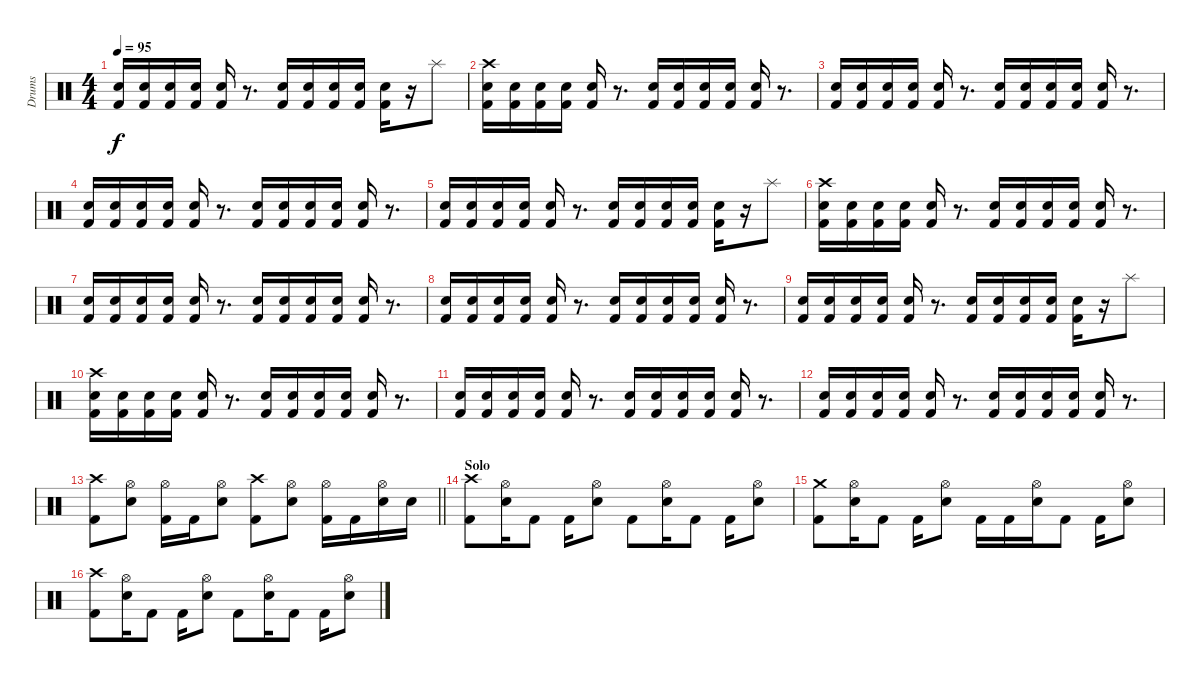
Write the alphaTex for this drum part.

\track ("Drums" "Drums") {instrument percussion}
\staff {score}
\articulation defaults
\ts (4 4)
\tempo 95
\clef neutral
\ks c
("Snare (hit) 2" "Kick (hit) 2").16{dy f} ("Snare (hit) 2" "Kick (hit) 2").16 ("Snare (hit) 2" "Kick (hit) 2").16 ("Snare (hit) 2" "Kick (hit) 2").16 ("Snare (hit) 2" "Kick (hit) 2").16 r.8{d} ("Snare (hit) 2" "Kick (hit) 2").16 ("Snare (hit) 2" "Kick (hit) 2").16 ("Snare (hit) 2" "Kick (hit) 2").16 ("Snare (hit) 2" "Kick (hit) 2").16 ("Snare (hit) 2" "Kick (hit) 2").16 r.16 "Splash (hit)".8 |
("Crash high (hit)" "Snare (hit) 2" "Kick (hit) 2").16 ("Snare (hit) 2" "Kick (hit) 2").16 ("Snare (hit) 2" "Kick (hit) 2").16 ("Snare (hit) 2" "Kick (hit) 2").16 ("Snare (hit) 2" "Kick (hit) 2").16 r.8{d} ("Snare (hit) 2" "Kick (hit) 2").16 ("Snare (hit) 2" "Kick (hit) 2").16 ("Snare (hit) 2" "Kick (hit) 2").16 ("Snare (hit) 2" "Kick (hit) 2").16 ("Snare (hit) 2" "Kick (hit) 2").16 r.8{d} |
("Snare (hit) 2" "Kick (hit) 2").16 ("Snare (hit) 2" "Kick (hit) 2").16 ("Snare (hit) 2" "Kick (hit) 2").16 ("Snare (hit) 2" "Kick (hit) 2").16 ("Snare (hit) 2" "Kick (hit) 2").16 r.8{d} ("Snare (hit) 2" "Kick (hit) 2").16 ("Snare (hit) 2" "Kick (hit) 2").16 ("Snare (hit) 2" "Kick (hit) 2").16 ("Snare (hit) 2" "Kick (hit) 2").16 ("Snare (hit) 2" "Kick (hit) 2").16 r.8{d} |
("Snare (hit) 2" "Kick (hit) 2").16 ("Snare (hit) 2" "Kick (hit) 2").16 ("Snare (hit) 2" "Kick (hit) 2").16 ("Snare (hit) 2" "Kick (hit) 2").16 ("Snare (hit) 2" "Kick (hit) 2").16 r.8{d} ("Snare (hit) 2" "Kick (hit) 2").16 ("Snare (hit) 2" "Kick (hit) 2").16 ("Snare (hit) 2" "Kick (hit) 2").16 ("Snare (hit) 2" "Kick (hit) 2").16 ("Snare (hit) 2" "Kick (hit) 2").16 r.8{d} |
("Snare (hit) 2" "Kick (hit) 2").16 ("Snare (hit) 2" "Kick (hit) 2").16 ("Snare (hit) 2" "Kick (hit) 2").16 ("Snare (hit) 2" "Kick (hit) 2").16 ("Snare (hit) 2" "Kick (hit) 2").16 r.8{d} ("Snare (hit) 2" "Kick (hit) 2").16 ("Snare (hit) 2" "Kick (hit) 2").16 ("Snare (hit) 2" "Kick (hit) 2").16 ("Snare (hit) 2" "Kick (hit) 2").16 ("Snare (hit) 2" "Kick (hit) 2").16 r.16 "Splash (hit)".8 |
("Crash high (hit)" "Snare (hit) 2" "Kick (hit) 2").16 ("Snare (hit) 2" "Kick (hit) 2").16 ("Snare (hit) 2" "Kick (hit) 2").16 ("Snare (hit) 2" "Kick (hit) 2").16 ("Snare (hit) 2" "Kick (hit) 2").16 r.8{d} ("Snare (hit) 2" "Kick (hit) 2").16 ("Snare (hit) 2" "Kick (hit) 2").16 ("Snare (hit) 2" "Kick (hit) 2").16 ("Snare (hit) 2" "Kick (hit) 2").16 ("Snare (hit) 2" "Kick (hit) 2").16 r.8{d} |
("Snare (hit) 2" "Kick (hit) 2").16 ("Snare (hit) 2" "Kick (hit) 2").16 ("Snare (hit) 2" "Kick (hit) 2").16 ("Snare (hit) 2" "Kick (hit) 2").16 ("Snare (hit) 2" "Kick (hit) 2").16 r.8{d} ("Snare (hit) 2" "Kick (hit) 2").16 ("Snare (hit) 2" "Kick (hit) 2").16 ("Snare (hit) 2" "Kick (hit) 2").16 ("Snare (hit) 2" "Kick (hit) 2").16 ("Snare (hit) 2" "Kick (hit) 2").16 r.8{d} |
("Snare (hit) 2" "Kick (hit) 2").16 ("Snare (hit) 2" "Kick (hit) 2").16 ("Snare (hit) 2" "Kick (hit) 2").16 ("Snare (hit) 2" "Kick (hit) 2").16 ("Snare (hit) 2" "Kick (hit) 2").16 r.8{d} ("Snare (hit) 2" "Kick (hit) 2").16 ("Snare (hit) 2" "Kick (hit) 2").16 ("Snare (hit) 2" "Kick (hit) 2").16 ("Snare (hit) 2" "Kick (hit) 2").16 ("Snare (hit) 2" "Kick (hit) 2").16 r.8{d} |
("Snare (hit) 2" "Kick (hit) 2").16 ("Snare (hit) 2" "Kick (hit) 2").16 ("Snare (hit) 2" "Kick (hit) 2").16 ("Snare (hit) 2" "Kick (hit) 2").16 ("Snare (hit) 2" "Kick (hit) 2").16 r.8{d} ("Snare (hit) 2" "Kick (hit) 2").16 ("Snare (hit) 2" "Kick (hit) 2").16 ("Snare (hit) 2" "Kick (hit) 2").16 ("Snare (hit) 2" "Kick (hit) 2").16 ("Snare (hit) 2" "Kick (hit) 2").16 r.16 "Splash (hit)".8 |
("Crash high (hit)" "Snare (hit) 2" "Kick (hit) 2").16 ("Snare (hit) 2" "Kick (hit) 2").16 ("Snare (hit) 2" "Kick (hit) 2").16 ("Snare (hit) 2" "Kick (hit) 2").16 ("Snare (hit) 2" "Kick (hit) 2").16 r.8{d} ("Snare (hit) 2" "Kick (hit) 2").16 ("Snare (hit) 2" "Kick (hit) 2").16 ("Snare (hit) 2" "Kick (hit) 2").16 ("Snare (hit) 2" "Kick (hit) 2").16 ("Snare (hit) 2" "Kick (hit) 2").16 r.8{d} |
("Snare (hit) 2" "Kick (hit) 2").16 ("Snare (hit) 2" "Kick (hit) 2").16 ("Snare (hit) 2" "Kick (hit) 2").16 ("Snare (hit) 2" "Kick (hit) 2").16 ("Snare (hit) 2" "Kick (hit) 2").16 r.8{d} ("Snare (hit) 2" "Kick (hit) 2").16 ("Snare (hit) 2" "Kick (hit) 2").16 ("Snare (hit) 2" "Kick (hit) 2").16 ("Snare (hit) 2" "Kick (hit) 2").16 ("Snare (hit) 2" "Kick (hit) 2").16 r.8{d} |
("Snare (hit) 2" "Kick (hit) 2").16 ("Snare (hit) 2" "Kick (hit) 2").16 ("Snare (hit) 2" "Kick (hit) 2").16 ("Snare (hit) 2" "Kick (hit) 2").16 ("Snare (hit) 2" "Kick (hit) 2").16 r.8{d} ("Snare (hit) 2" "Kick (hit) 2").16 ("Snare (hit) 2" "Kick (hit) 2").16 ("Snare (hit) 2" "Kick (hit) 2").16 ("Snare (hit) 2" "Kick (hit) 2").16 ("Snare (hit) 2" "Kick (hit) 2").16 r.8{d} |
\barLineRight lightlight
("Crash high (hit)" "Kick (hit) 2").8 ("Hi-Hat (open)" "Snare (hit) 2").8 ("Hi-Hat (open)" "Kick (hit) 2").16 "Kick (hit) 2".16 ("Hi-Hat (open)" "Snare (hit) 2").8 ("Crash high (hit)" "Kick (hit) 2").8 ("Hi-Hat (open)" "Snare (hit) 2").8 ("Hi-Hat (open)" "Kick (hit) 2").16 "Kick (hit) 2".16 ("Hi-Hat (open)" "Snare (hit) 2").16 "Snare (hit) 2".16 |
\section ("" "Solo")
("Crash high (hit)" "Kick (hit) 2").8 ("Hi-Hat (open)" "Snare (hit) 2").16 "Kick (hit) 2".8 "Kick (hit) 2".16 ("Hi-Hat (open)" "Snare (hit) 2").8 "Kick (hit) 2".8 ("Hi-Hat (open)" "Snare (hit) 2").16 "Kick (hit) 2".8 "Kick (hit) 2".16 ("Hi-Hat (open)" "Snare (hit) 2").8 |
("Crash medium (hit)" "Kick (hit) 2").8 ("Hi-Hat (open)" "Snare (hit) 2").16 "Kick (hit) 2".8 "Kick (hit) 2".16 ("Hi-Hat (open)" "Snare (hit) 2").8 "Kick (hit) 2".16 "Kick (hit) 2".16 ("Hi-Hat (open)" "Snare (hit) 2").16 "Kick (hit) 2".8 "Kick (hit) 2".16 ("Hi-Hat (open)" "Snare (hit) 2").8 |
("Crash high (hit)" "Kick (hit) 2").8 ("Hi-Hat (open)" "Snare (hit) 2").16 "Kick (hit) 2".8 "Kick (hit) 2".16 ("Hi-Hat (open)" "Snare (hit) 2").8 "Kick (hit) 2".8 ("Hi-Hat (open)" "Snare (hit) 2").16 "Kick (hit) 2".8 "Kick (hit) 2".16 ("Hi-Hat (open)" "Snare (hit) 2").8
